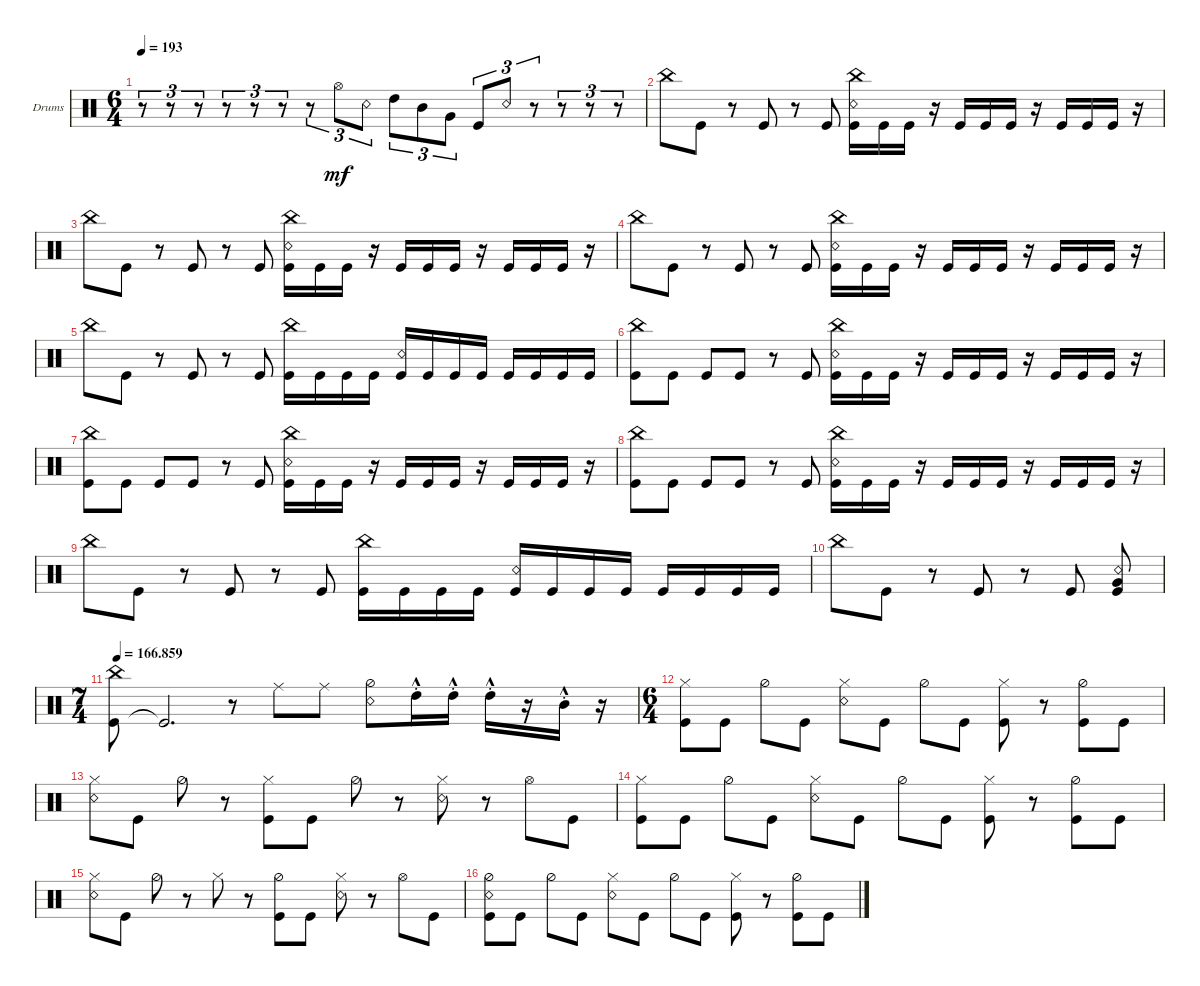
\defaultSystemsLayout 4
\bracketExtendMode groupsimilarinstruments
\firstSystemTrackNameOrientation horizontal
\otherSystemsTrackNameOrientation horizontal
\track ("Drumkit" "Drums") {multiBarRest instrument percussion}
\staff {score}
\articulation defaults
\ts (6 4)
\tempo 193
\clef neutral
\ks c
r.8{tu (3 2) dy mf} r.8{tu (3 2)} r.8{tu (3 2)} r.8{tu (3 2)} r.8{tu (3 2)} r.8{tu (3 2)} r.8{tu (3 2)} "Hi-Hat (open)".8{tu (3 2)} "Snare (rim shot)".8{tu (3 2)} "High Tom (hit)".8{tu (3 2)} "Mid Tom (hit)".8{tu (3 2)} "Very Low Tom (hit)".8{tu (3 2)} "Kick (hit)".8{tu (3 2)} "Snare (rim shot)".8{tu (3 2)} r.8{tu (3 2)} r.8{tu (3 2)} r.8{tu (3 2)} r.8{tu (3 2)} |
\scale
0.472222 "China (hit)".8 "Kick (hit)".8 r.8 "Kick (hit)".8 r.8 "Kick (hit)".8 ("Kick (hit)" "China (hit)" "Snare (rim shot)").16 "Kick (hit)".16 "Kick (hit)".16 r.16 "Kick (hit)".16 "Kick (hit)".16 "Kick (hit)".16 r.16 "Kick (hit)".16 "Kick (hit)".16 "Kick (hit)".16 r.16 |
\scale
0.263889 "China (hit)".8 "Kick (hit)".8 r.8 "Kick (hit)".8 r.8 "Kick (hit)".8 ("Kick (hit)" "China (hit)" "Snare (rim shot)").16 "Kick (hit)".16 "Kick (hit)".16 r.16 "Kick (hit)".16 "Kick (hit)".16 "Kick (hit)".16 r.16 "Kick (hit)".16 "Kick (hit)".16 "Kick (hit)".16 r.16 |
\scale
0.263889 "China (hit)".8 "Kick (hit)".8 r.8 "Kick (hit)".8 r.8 "Kick (hit)".8 ("Kick (hit)" "China (hit)" "Snare (rim shot)").16 "Kick (hit)".16 "Kick (hit)".16 r.16 "Kick (hit)".16 "Kick (hit)".16 "Kick (hit)".16 r.16 "Kick (hit)".16 "Kick (hit)".16 "Kick (hit)".16 r.16 |
\scale
0.333333 "China (hit)".8 "Kick (hit)".8 r.8 "Kick (hit)".8 r.8 "Kick (hit)".8 ("Kick (hit)" "China (hit)").16 "Kick (hit)".16 "Kick (hit)".16 "Kick (hit)".16 ("Kick (hit)" "Snare (rim shot)").16 "Kick (hit)".16 "Kick (hit)".16 "Kick (hit)".16 "Kick (hit)".16 "Kick (hit)".16 "Kick (hit)".16 "Kick (hit)".16 |
\scale
0.333333 ("China (hit)" "Kick (hit)").8 "Kick (hit)".8 "Kick (hit)".8 "Kick (hit)".8 r.8 "Kick (hit)".8 ("Kick (hit)" "China (hit)" "Snare (rim shot)").16 "Kick (hit)".16 "Kick (hit)".16 r.16 "Kick (hit)".16 "Kick (hit)".16 "Kick (hit)".16 r.16 "Kick (hit)".16 "Kick (hit)".16 "Kick (hit)".16 r.16 |
\scale
0.333333 ("China (hit)" "Kick (hit)").8 "Kick (hit)".8 "Kick (hit)".8 "Kick (hit)".8 r.8 "Kick (hit)".8 ("Kick (hit)" "China (hit)" "Snare (rim shot)").16 "Kick (hit)".16 "Kick (hit)".16 r.16 "Kick (hit)".16 "Kick (hit)".16 "Kick (hit)".16 r.16 "Kick (hit)".16 "Kick (hit)".16 "Kick (hit)".16 r.16 |
\scale
0.333333 ("China (hit)" "Kick (hit)").8 "Kick (hit)".8 "Kick (hit)".8 "Kick (hit)".8 r.8 "Kick (hit)".8 ("Kick (hit)" "China (hit)" "Snare (rim shot)").16 "Kick (hit)".16 "Kick (hit)".16 r.16 "Kick (hit)".16 "Kick (hit)".16 "Kick (hit)".16 r.16 "Kick (hit)".16 "Kick (hit)".16 "Kick (hit)".16 r.16 |
\scale
0.333333 "China (hit)".8 "Kick (hit)".8 r.8 "Kick (hit)".8 r.8 "Kick (hit)".8 ("Kick (hit)" "China (hit)").16 "Kick (hit)".16 "Kick (hit)".16 "Kick (hit)".16 ("Kick (hit)" "Snare (rim shot)").16 "Kick (hit)".16 "Kick (hit)".16 "Kick (hit)".16 "Kick (hit)".16 "Kick (hit)".16 "Kick (hit)".16 "Kick (hit)".16 |
\scale
0.333333 "China (hit)".8 "Kick (hit)".8 r.8 "Kick (hit)".8 r.8 "Kick (hit)".8 ("Kick (hit)" "Very Low Tom (hit)" "Snare (rim shot)").8 |
\ts (7 4)
\tempo
166.859
\scale
0.333333 ("Kick (hit)" "China (hit)").8 "Kick (hit)"{t}.2{d} r.8 "Ride (middle)".8 "Ride (middle)".8 ("Snare (rim shot)" "Hi-Hat (half)").8 "High Tom (hit)"{hac st}.16 "High Tom (hit)"{hac st}.16 "High Tom (hit)"{hac st}.16 r.16 "Mid Tom (hit)"{hac st}.16 r.16 |
\ts (6 4)
\scale
0.333333 ("Kick (hit)" "Hi-Hat (closed)").8 "Kick (hit)".8 "Hi-Hat (half)".8 "Kick (hit)".8 ("Snare (rim shot)" "Hi-Hat (closed)").8 "Kick (hit)".8 "Hi-Hat (half)".8 "Kick (hit)".8 ("Kick (hit)" "Hi-Hat (closed)").8 r.8 ("Kick (hit)" "Hi-Hat (half)").8 "Kick (hit)".8 |
\scale
0.333333 ("Snare (rim shot)" "Hi-Hat (closed)").8 "Kick (hit)".8 "Hi-Hat (half)".8 r.8 ("Hi-Hat (closed)" "Kick (hit)").8 "Kick (hit)".8 "Hi-Hat (half)".8 r.8 ("Hi-Hat (closed)" "Snare (rim shot)").8 r.8 "Hi-Hat (open)".8 "Kick (hit)".8 |
\scale
0.333333 ("Kick (hit)" "Hi-Hat (closed)").8 "Kick (hit)".8 "Hi-Hat (half)".8 "Kick (hit)".8 ("Snare (rim shot)" "Hi-Hat (closed)").8 "Kick (hit)".8 "Hi-Hat (half)".8 "Kick (hit)".8 ("Kick (hit)" "Hi-Hat (closed)").8 r.8 ("Kick (hit)" "Hi-Hat (half)").8 "Kick (hit)".8 |
\scale
0.333333 ("Snare (rim shot)" "Hi-Hat (closed)").8 "Kick (hit)".8 "Hi-Hat (half)".8 r.8 "Hi-Hat (closed)".8 r.8 ("Hi-Hat (half)" "Kick (hit)").8 "Kick (hit)".8 ("Hi-Hat (closed)" "Snare (rim shot)").8 r.8 "Hi-Hat (open)".8 "Kick (hit)".8 |
\scale
0.333333 ("Kick (hit)" "Snare (rim shot)" "Hi-Hat (half)").8 "Kick (hit)".8 "Hi-Hat (half)".8 "Kick (hit)".8 ("Snare (rim shot)" "Hi-Hat (closed)").8 "Kick (hit)".8 "Hi-Hat (half)".8 "Kick (hit)".8 ("Kick (hit)" "Hi-Hat (closed)").8 r.8 ("Kick (hit)" "Hi-Hat (half)").8 "Kick (hit)".8
